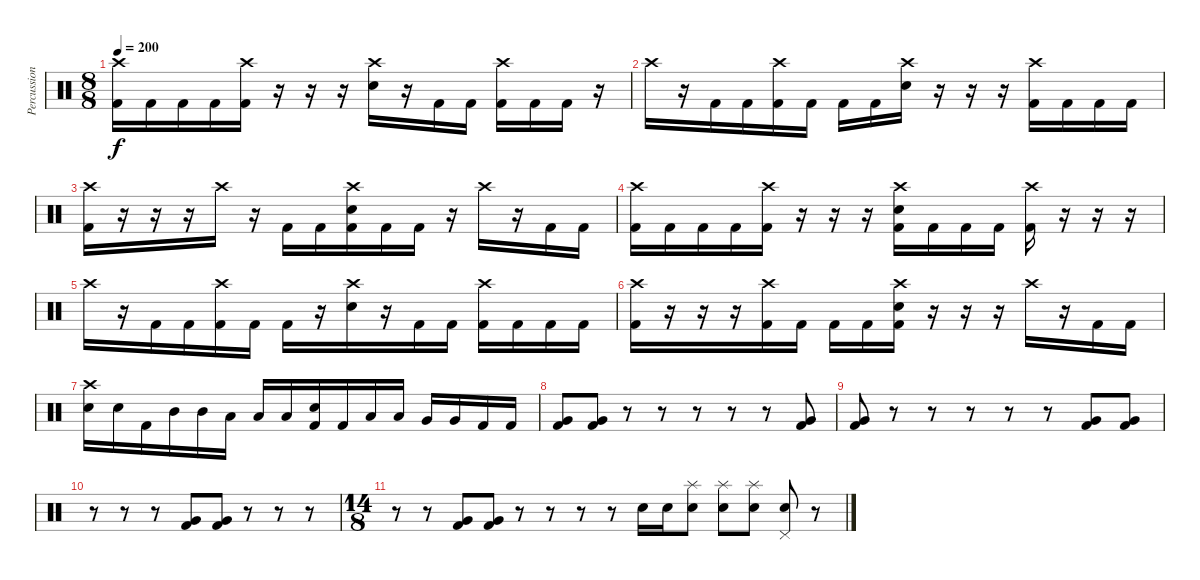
\track ("Percussions" "Percussion") {instrument percussion}
\staff {score}
\articulation defaults
\ts (8 8)
\tempo 200
\clef neutral
\ks c
("Crash high (hit)" "Kick (hit) 2").16{dy f} "Kick (hit) 2".16 "Kick (hit) 2".16 "Kick (hit) 2".16 ("Crash high (hit)" "Kick (hit) 2").16 r.16 r.16 r.16 ("Crash high (hit)" "Electric Snare (hit)").16 r.16 "Kick (hit) 2".16 "Kick (hit) 2".16 ("Crash high (hit)" "Kick (hit) 2").16 "Kick (hit) 2".16 "Kick (hit) 2".16 r.16 |
"Crash high (hit)".16 r.16 "Kick (hit) 2".16 "Kick (hit) 2".16 ("Crash high (hit)" "Kick (hit) 2").16 "Kick (hit) 2".16 "Kick (hit) 2".16 "Kick (hit) 2".16 ("Crash high (hit)" "Electric Snare (hit)").16 r.16 r.16 r.16 ("Crash high (hit)" "Kick (hit) 2").16 "Kick (hit) 2".16 "Kick (hit) 2".16 "Kick (hit) 2".16 |
("Crash high (hit)" "Kick (hit) 2").16 r.16 r.16 r.16 "Crash high (hit)".16 r.16 "Kick (hit) 2".16 "Kick (hit) 2".16 ("Crash high (hit)" "Electric Snare (hit)" "Kick (hit) 2").16 "Kick (hit) 2".16 "Kick (hit) 2".16 r.16 "Crash high (hit)".16 r.16 "Kick (hit) 2".16 "Kick (hit) 2".16 |
("Crash high (hit)" "Kick (hit) 2").16 "Kick (hit) 2".16 "Kick (hit) 2".16 "Kick (hit) 2".16 ("Crash high (hit)" "Kick (hit) 2").16 r.16 r.16 r.16 ("Crash high (hit)" "Electric Snare (hit)" "Kick (hit) 2").16 "Kick (hit) 2".16 "Kick (hit) 2".16 "Kick (hit) 2".16 ("Crash high (hit)" "Kick (hit) 2").16 r.16 r.16 r.16 |
"Crash high (hit)".16 r.16 "Kick (hit) 2".16 "Kick (hit) 2".16 ("Crash high (hit)" "Kick (hit) 2").16 "Kick (hit) 2".16 "Kick (hit) 2".16 r.16 ("Crash high (hit)" "Electric Snare (hit)").16 r.16 "Kick (hit) 2".16 "Kick (hit) 2".16 ("Crash high (hit)" "Kick (hit) 2").16 "Kick (hit) 2".16 "Kick (hit) 2".16 "Kick (hit) 2".16 |
("Crash high (hit)" "Kick (hit) 2").16 r.16 r.16 r.16 ("Crash high (hit)" "Kick (hit) 2").16 "Kick (hit) 2".16 "Kick (hit) 2".16 "Kick (hit) 2".16 ("Crash high (hit)" "Electric Snare (hit)" "Kick (hit) 2").16 r.16 r.16 r.16 "Crash high (hit)".16 r.16 "Kick (hit) 2".16 "Kick (hit) 2".16 |
("Crash high (hit)" "Electric Snare (hit)").16 "Electric Snare (hit)".16 "Kick (hit) 2".16 "Mid Tom (hit)".16 "Mid Tom (hit)".16 "Low Tom (hit)".16 "Low Tom (hit)".16 "Low Floor Tom (hit)".16 ("Electric Snare (hit)" "Kick (hit) 2").16 "Kick (hit) 2".16 "Low Tom (hit)".16 "Low Tom (hit)".16 "Very Low Tom (hit)".16 "Very Low Tom (hit)".16 "Kick (hit) 2".16 "Kick (hit) 2".16 |
("Very Low Tom (hit)" "Kick (hit) 2").8 ("Very Low Tom (hit)" "Kick (hit) 2").8 r.8 r.8 r.8 r.8 r.8 ("Very Low Tom (hit)" "Kick (hit) 2").8 |
("Very Low Tom (hit)" "Kick (hit) 2").8 r.8 r.8 r.8 r.8 r.8 ("Very Low Tom (hit)" "Kick (hit) 2").8 ("Very Low Tom (hit)" "Kick (hit) 2").8 |
r.8 r.8 r.8 ("Very Low Tom (hit)" "Kick (hit) 2").8 ("Very Low Tom (hit)" "Kick (hit) 2").8 r.8 r.8 r.8 |
\ts (14 8)
r.8 r.8 ("Very Low Tom (hit)" "Kick (hit) 2").8 ("Very Low Tom (hit)" "Kick (hit) 2").8 r.8 r.8 r.8 r.8 "Electric Snare (hit)".16 "Electric Snare (hit)".16 ("Splash (hit)" "Electric Snare (hit)").8 ("Splash (hit)" "Electric Snare (hit)").8 ("Splash (hit)" "Electric Snare (hit)").8 ("Pedal Hi-Hat (hit)" "Electric Snare (hit)").8 r.8
